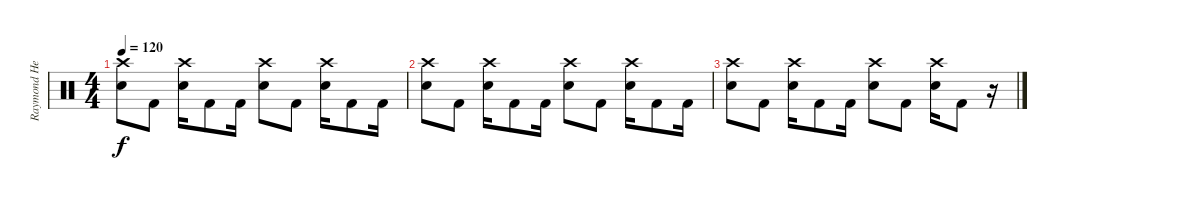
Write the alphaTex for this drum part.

\track ("Raymond Herrera" "Raymond He") {instrument percussion}
\staff {score}
\articulation defaults
\ts (4 4)
\tempo 120
\clef neutral
\ks c
("Crash high (hit)" "Electric Snare (hit)").8{dy f} "Kick (hit) 2".8 ("Crash high (hit)" "Electric Snare (hit)").16 "Kick (hit) 2".8 "Kick (hit) 2".16 ("Crash high (hit)" "Electric Snare (hit)").8 "Kick (hit) 2".8 ("Crash high (hit)" "Electric Snare (hit)").16 "Kick (hit) 2".8 "Kick (hit) 2".16 |
("Crash high (hit)" "Electric Snare (hit)").8 "Kick (hit) 2".8 ("Crash high (hit)" "Electric Snare (hit)").16 "Kick (hit) 2".8 "Kick (hit) 2".16 ("Crash high (hit)" "Electric Snare (hit)").8 "Kick (hit) 2".8 ("Crash high (hit)" "Electric Snare (hit)").16 "Kick (hit) 2".8 "Kick (hit) 2".16 |
("Crash high (hit)" "Electric Snare (hit)").8 "Kick (hit) 2".8 ("Crash high (hit)" "Electric Snare (hit)").16 "Kick (hit) 2".8 "Kick (hit) 2".16 ("Crash high (hit)" "Electric Snare (hit)").8 "Kick (hit) 2".8 ("Crash high (hit)" "Electric Snare (hit)").16 "Kick (hit) 2".8 r.16
